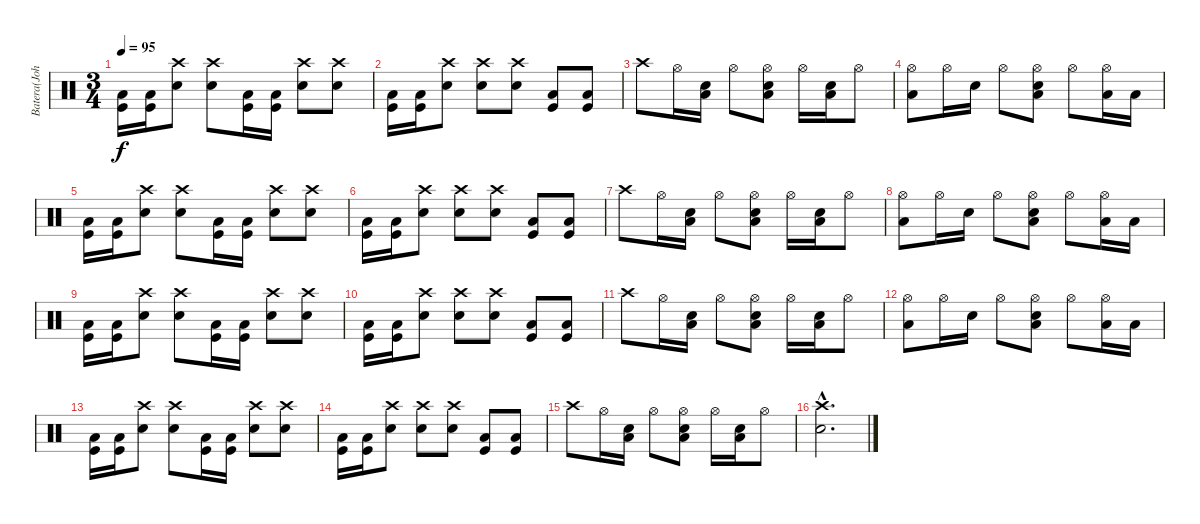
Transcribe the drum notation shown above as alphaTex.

\track ("Batera(John)" "Batera(Joh") {instrument percussion}
\staff {score}
\articulation defaults
\ts (3 4)
\tempo 95
\clef neutral
\ks c
("Kick (hit)" "Low Tom (hit)").16{dy f} ("Kick (hit)" "Low Tom (hit)").16 ("Crash high (hit)" "Snare (hit) 2").8 ("Crash high (hit)" "Snare (hit) 2").8 ("Kick (hit)" "Low Tom (hit)").16 ("Kick (hit)" "Low Tom (hit)").16 ("Crash high (hit)" "Snare (hit) 2").8 ("Crash high (hit)" "Snare (hit) 2").8 |
("Kick (hit)" "Low Tom (hit)").16 ("Kick (hit)" "Low Tom (hit)").16 ("Crash high (hit)" "Snare (hit) 2").8 ("Crash high (hit)" "Snare (hit) 2").8 ("Crash high (hit)" "Snare (hit) 2").8 ("Kick (hit)" "Low Tom (hit)").8 ("Kick (hit)" "Low Tom (hit)").8 |
"Crash high (hit)".8 "Hi-Hat (open)".16 ("Snare (hit) 2" "Low Tom (hit)").16 "Hi-Hat (open)".8 ("Hi-Hat (open)" "Snare (hit) 2" "Low Tom (hit)").8 "Hi-Hat (open)".16 ("Snare (hit) 2" "Low Tom (hit)").16 "Hi-Hat (open)".8 |
("Hi-Hat (open)" "Low Tom (hit)").8 "Hi-Hat (open)".16 "Snare (hit) 2".16 "Hi-Hat (open)".8 ("Hi-Hat (open)" "Snare (hit) 2" "Low Tom (hit)").8 "Hi-Hat (open)".8 ("Hi-Hat (open)" "Low Tom (hit)").16 "Low Tom (hit)".16 |
("Kick (hit)" "Low Tom (hit)").16 ("Kick (hit)" "Low Tom (hit)").16 ("Crash high (hit)" "Snare (hit) 2").8 ("Crash high (hit)" "Snare (hit) 2").8 ("Kick (hit)" "Low Tom (hit)").16 ("Kick (hit)" "Low Tom (hit)").16 ("Crash high (hit)" "Snare (hit) 2").8 ("Crash high (hit)" "Snare (hit) 2").8 |
("Kick (hit)" "Low Tom (hit)").16 ("Kick (hit)" "Low Tom (hit)").16 ("Crash high (hit)" "Snare (hit) 2").8 ("Crash high (hit)" "Snare (hit) 2").8 ("Crash high (hit)" "Snare (hit) 2").8 ("Kick (hit)" "Low Tom (hit)").8 ("Kick (hit)" "Low Tom (hit)").8 |
"Crash high (hit)".8 "Hi-Hat (open)".16 ("Snare (hit) 2" "Low Tom (hit)").16 "Hi-Hat (open)".8 ("Hi-Hat (open)" "Snare (hit) 2" "Low Tom (hit)").8 "Hi-Hat (open)".16 ("Snare (hit) 2" "Low Tom (hit)").16 "Hi-Hat (open)".8 |
("Hi-Hat (open)" "Low Tom (hit)").8 "Hi-Hat (open)".16 "Snare (hit) 2".16 "Hi-Hat (open)".8 ("Hi-Hat (open)" "Snare (hit) 2" "Low Tom (hit)").8 "Hi-Hat (open)".8 ("Hi-Hat (open)" "Low Tom (hit)").16 "Low Tom (hit)".16 |
("Kick (hit)" "Low Tom (hit)").16 ("Kick (hit)" "Low Tom (hit)").16 ("Crash high (hit)" "Snare (hit) 2").8 ("Crash high (hit)" "Snare (hit) 2").8 ("Kick (hit)" "Low Tom (hit)").16 ("Kick (hit)" "Low Tom (hit)").16 ("Crash high (hit)" "Snare (hit) 2").8 ("Crash high (hit)" "Snare (hit) 2").8 |
("Kick (hit)" "Low Tom (hit)").16 ("Kick (hit)" "Low Tom (hit)").16 ("Crash high (hit)" "Snare (hit) 2").8 ("Crash high (hit)" "Snare (hit) 2").8 ("Crash high (hit)" "Snare (hit) 2").8 ("Kick (hit)" "Low Tom (hit)").8 ("Kick (hit)" "Low Tom (hit)").8 |
"Crash high (hit)".8 "Hi-Hat (open)".16 ("Snare (hit) 2" "Low Tom (hit)").16 "Hi-Hat (open)".8 ("Hi-Hat (open)" "Snare (hit) 2" "Low Tom (hit)").8 "Hi-Hat (open)".16 ("Snare (hit) 2" "Low Tom (hit)").16 "Hi-Hat (open)".8 |
("Hi-Hat (open)" "Low Tom (hit)").8 "Hi-Hat (open)".16 "Snare (hit) 2".16 "Hi-Hat (open)".8 ("Hi-Hat (open)" "Snare (hit) 2" "Low Tom (hit)").8 "Hi-Hat (open)".8 ("Hi-Hat (open)" "Low Tom (hit)").16 "Low Tom (hit)".16 |
("Kick (hit)" "Low Tom (hit)").16 ("Kick (hit)" "Low Tom (hit)").16 ("Crash high (hit)" "Snare (hit) 2").8 ("Crash high (hit)" "Snare (hit) 2").8 ("Kick (hit)" "Low Tom (hit)").16 ("Kick (hit)" "Low Tom (hit)").16 ("Crash high (hit)" "Snare (hit) 2").8 ("Crash high (hit)" "Snare (hit) 2").8 |
("Kick (hit)" "Low Tom (hit)").16 ("Kick (hit)" "Low Tom (hit)").16 ("Crash high (hit)" "Snare (hit) 2").8 ("Crash high (hit)" "Snare (hit) 2").8 ("Crash high (hit)" "Snare (hit) 2").8 ("Kick (hit)" "Low Tom (hit)").8 ("Kick (hit)" "Low Tom (hit)").8 |
"Crash high (hit)".8 "Hi-Hat (open)".16 ("Snare (hit) 2" "Low Tom (hit)").16 "Hi-Hat (open)".8 ("Hi-Hat (open)" "Snare (hit) 2" "Low Tom (hit)").8 "Hi-Hat (open)".16 ("Snare (hit) 2" "Low Tom (hit)").16 "Hi-Hat (open)".8 |
("Crash high (hit)"{hac} "Snare (hit) 2"{hac}).2{d}
